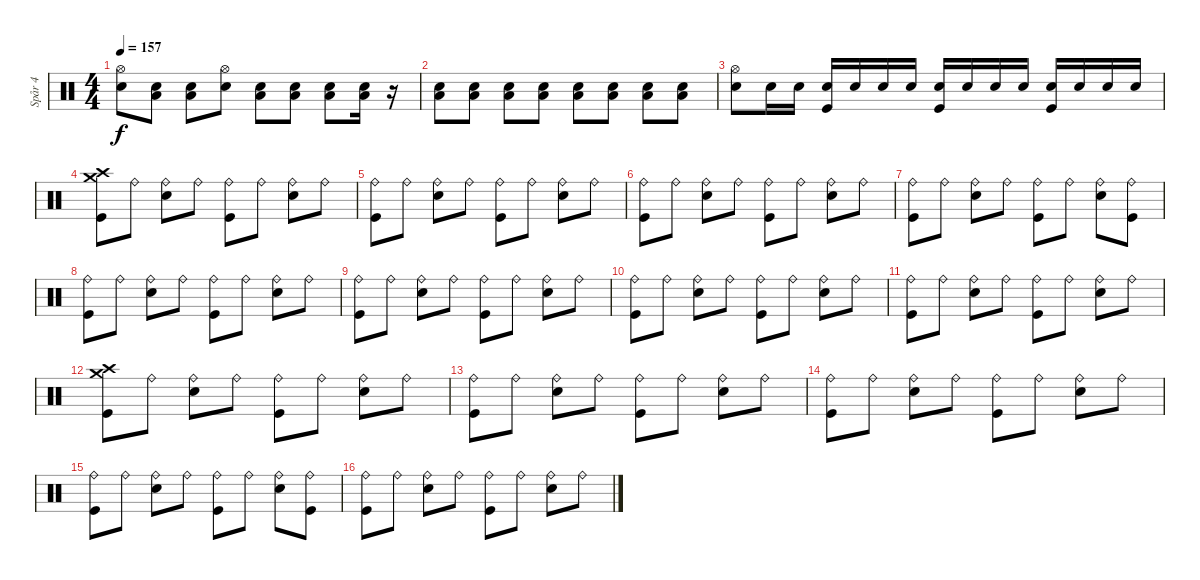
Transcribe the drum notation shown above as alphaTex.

\track ("Spår 4" "Spår 4") {instrument percussion}
\staff {score}
\articulation defaults
\ts (4 4)
\tempo 157
\clef neutral
\ks c
("Hi-Hat (open)" "Snare (hit) 2").8{dy f} ("Low Floor Tom (hit)" "Snare (hit) 2").8 ("Low Floor Tom (hit)" "Snare (hit) 2").8 ("Hi-Hat (open)" "Snare (hit) 2").8 ("Low Floor Tom (hit)" "Snare (hit) 2").8 ("Low Floor Tom (hit)" "Snare (hit) 2").8 ("Low Floor Tom (hit)" "Snare (hit) 2").8 ("Low Floor Tom (hit)" "Snare (hit) 2").16 r.16{volume 9} |
("Low Floor Tom (hit)" "Snare (hit) 2").8{volume 13} ("Low Floor Tom (hit)" "Snare (hit) 2").8 ("Low Floor Tom (hit)" "Snare (hit) 2").8 ("Low Floor Tom (hit)" "Snare (hit) 2").8 ("Low Floor Tom (hit)" "Snare (hit) 2").8 ("Low Floor Tom (hit)" "Snare (hit) 2").8 ("Low Floor Tom (hit)" "Snare (hit) 2").8 ("Low Floor Tom (hit)" "Snare (hit) 2").8 |
("Hi-Hat (open)" "Snare (hit) 2").8 "Snare (hit) 2".16 "Snare (hit) 2".16 ("Snare (hit) 2" "Kick (hit)").16 "Snare (hit) 2".16 "Snare (hit) 2".16 "Snare (hit) 2".16 ("Snare (hit) 2" "Kick (hit)").16 "Snare (hit) 2".16 "Snare (hit) 2".16 "Snare (hit) 2".16 ("Snare (hit) 2" "Kick (hit)").16 "Snare (hit) 2".16 "Snare (hit) 2".16 "Snare (hit) 2".16 |
("Crash medium (hit)" "Crash high (hit)" "Kick (hit)").8 "Ride (bell)".8 ("Ride (bell)" "Snare (hit) 2").8 "Ride (bell)".8 ("Ride (bell)" "Kick (hit)").8 "Ride (bell)".8 ("Ride (bell)" "Snare (hit) 2").8 "Ride (bell)".8 |
("Ride (bell)" "Kick (hit)").8 "Ride (bell)".8 ("Ride (bell)" "Snare (hit) 2").8 "Ride (bell)".8 ("Ride (bell)" "Kick (hit)").8 "Ride (bell)".8 ("Ride (bell)" "Snare (hit) 2").8 "Ride (bell)".8 |
("Ride (bell)" "Kick (hit)").8 "Ride (bell)".8 ("Ride (bell)" "Snare (hit) 2").8 "Ride (bell)".8 ("Ride (bell)" "Kick (hit)").8 "Ride (bell)".8 ("Ride (bell)" "Snare (hit) 2").8 "Ride (bell)".8 |
("Ride (bell)" "Kick (hit)").8 "Ride (bell)".8 ("Ride (bell)" "Snare (hit) 2").8 "Ride (bell)".8 ("Ride (bell)" "Kick (hit)").8 "Ride (bell)".8 ("Ride (bell)" "Snare (hit) 2").8 ("Ride (bell)" "Kick (hit)").8 |
("Ride (bell)" "Kick (hit)").8 "Ride (bell)".8 ("Ride (bell)" "Snare (hit) 2").8 "Ride (bell)".8 ("Ride (bell)" "Kick (hit)").8 "Ride (bell)".8 ("Ride (bell)" "Snare (hit) 2").8 "Ride (bell)".8 |
("Ride (bell)" "Kick (hit)").8 "Ride (bell)".8 ("Ride (bell)" "Snare (hit) 2").8 "Ride (bell)".8 ("Ride (bell)" "Kick (hit)").8 "Ride (bell)".8 ("Ride (bell)" "Snare (hit) 2").8 "Ride (bell)".8 |
("Ride (bell)" "Kick (hit)").8 "Ride (bell)".8 ("Ride (bell)" "Snare (hit) 2").8 "Ride (bell)".8 ("Ride (bell)" "Kick (hit)").8 "Ride (bell)".8 ("Ride (bell)" "Snare (hit) 2").8 "Ride (bell)".8 |
("Ride (bell)" "Kick (hit)").8 "Ride (bell)".8 ("Ride (bell)" "Snare (hit) 2").8 "Ride (bell)".8 ("Ride (bell)" "Kick (hit)").8 "Ride (bell)".8 ("Ride (bell)" "Snare (hit) 2").8 "Ride (bell)".8 |
("Crash medium (hit)" "Crash high (hit)" "Kick (hit)").8 "Ride (bell)".8 ("Ride (bell)" "Snare (hit) 2").8 "Ride (bell)".8 ("Ride (bell)" "Kick (hit)").8 "Ride (bell)".8 ("Ride (bell)" "Snare (hit) 2").8 "Ride (bell)".8 |
("Ride (bell)" "Kick (hit)").8 "Ride (bell)".8 ("Ride (bell)" "Snare (hit) 2").8 "Ride (bell)".8 ("Ride (bell)" "Kick (hit)").8 "Ride (bell)".8 ("Ride (bell)" "Snare (hit) 2").8 "Ride (bell)".8 |
("Ride (bell)" "Kick (hit)").8 "Ride (bell)".8 ("Ride (bell)" "Snare (hit) 2").8 "Ride (bell)".8 ("Ride (bell)" "Kick (hit)").8 "Ride (bell)".8 ("Ride (bell)" "Snare (hit) 2").8 "Ride (bell)".8 |
("Ride (bell)" "Kick (hit)").8 "Ride (bell)".8 ("Ride (bell)" "Snare (hit) 2").8 "Ride (bell)".8 ("Ride (bell)" "Kick (hit)").8 "Ride (bell)".8 ("Ride (bell)" "Snare (hit) 2").8 ("Ride (bell)" "Kick (hit)").8 |
("Ride (bell)" "Kick (hit)").8 "Ride (bell)".8 ("Ride (bell)" "Snare (hit) 2").8 "Ride (bell)".8 ("Ride (bell)" "Kick (hit)").8 "Ride (bell)".8 ("Ride (bell)" "Snare (hit) 2").8 "Ride (bell)".8
